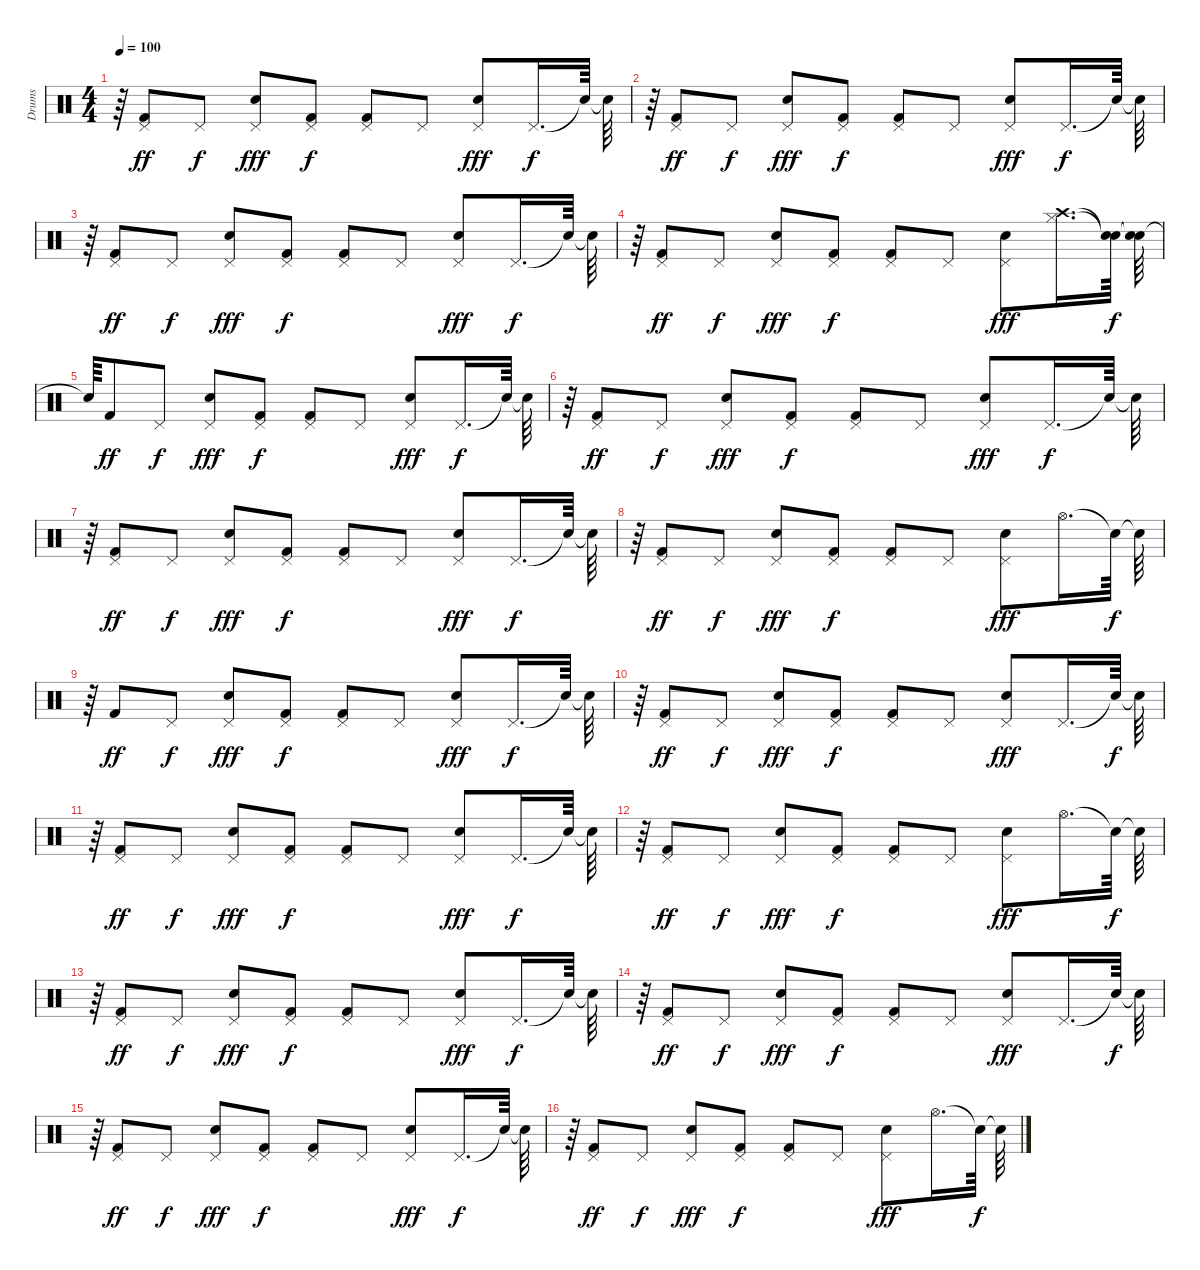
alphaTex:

\track ("Drums" "Drums") {instrument percussion}
\staff {score}
\articulation defaults
\ts (4 4)
\tempo 100
\clef neutral
\ks c
r.64{dy f} ("Pedal Hi-Hat (hit)" "Kick (hit) 2").8{dy ff} "Pedal Hi-Hat (hit)".8{dy f} ("Snare (hit) 2" "Pedal Hi-Hat (hit)").8{dy fff} ("Kick (hit) 2" "Pedal Hi-Hat (hit)").8{dy f} ("Kick (hit) 2" "Pedal Hi-Hat (hit)").8 "Pedal Hi-Hat (hit)".8 ("Snare (hit) 2" "Pedal Hi-Hat (hit)").8{dy fff} "Pedal Hi-Hat (hit)".16{d dy f} "Snare (hit)"{t}.64 "Snare (hit)"{t}.64 |
r.64 ("Pedal Hi-Hat (hit)" "Kick (hit) 2").8{dy ff} "Pedal Hi-Hat (hit)".8{dy f} ("Snare (hit) 2" "Pedal Hi-Hat (hit)").8{dy fff} ("Kick (hit) 2" "Pedal Hi-Hat (hit)").8{dy f} ("Kick (hit) 2" "Pedal Hi-Hat (hit)").8 "Pedal Hi-Hat (hit)".8 ("Snare (hit) 2" "Pedal Hi-Hat (hit)").8{dy fff} "Pedal Hi-Hat (hit)".16{d dy f} "Snare (hit)"{t}.64 "Snare (hit)"{t}.64 |
r.64 ("Pedal Hi-Hat (hit)" "Kick (hit) 2").8{dy ff} "Pedal Hi-Hat (hit)".8{dy f} ("Snare (hit) 2" "Pedal Hi-Hat (hit)").8{dy fff} ("Kick (hit) 2" "Pedal Hi-Hat (hit)").8{dy f} ("Kick (hit) 2" "Pedal Hi-Hat (hit)").8 "Pedal Hi-Hat (hit)".8 ("Snare (hit) 2" "Pedal Hi-Hat (hit)").8{dy fff} "Pedal Hi-Hat (hit)".16{d dy f} "Snare (hit)"{t}.64 "Snare (hit)"{t}.64 |
r.64 ("Pedal Hi-Hat (hit)" "Kick (hit) 2").8{dy ff} "Pedal Hi-Hat (hit)".8{dy f} ("Pedal Hi-Hat (hit)" "Snare (hit) 2").8{dy fff} ("Kick (hit) 2" "Pedal Hi-Hat (hit)").8{dy f} ("Pedal Hi-Hat (hit)" "Kick (hit) 2").8 "Pedal Hi-Hat (hit)".8 ("Pedal Hi-Hat (hit)" "Snare (hit) 2").8{dy fff} ("Crash high (hit)" "Hi-Hat (closed)").16{d} ("Snare (hit)"{t} "Snare (hit)"{t}).64{dy f} ("Snare (hit)"{t} "Snare (hit)"{t}).64 |
"Snare (hit)"{t}.64 "Kick (hit) 2".8{dy ff} "Pedal Hi-Hat (hit)".8{dy f} ("Snare (hit) 2" "Pedal Hi-Hat (hit)").8{dy fff} ("Kick (hit) 2" "Pedal Hi-Hat (hit)").8{dy f} ("Kick (hit) 2" "Pedal Hi-Hat (hit)").8 "Pedal Hi-Hat (hit)".8 ("Snare (hit) 2" "Pedal Hi-Hat (hit)").8{dy fff} "Pedal Hi-Hat (hit)".16{d dy f} "Snare (hit)"{t}.64 "Snare (hit)"{t}.64 |
r.64 ("Pedal Hi-Hat (hit)" "Kick (hit) 2").8{dy ff} "Pedal Hi-Hat (hit)".8{dy f} ("Pedal Hi-Hat (hit)" "Snare (hit) 2").8{dy fff} ("Kick (hit) 2" "Pedal Hi-Hat (hit)").8{dy f} ("Pedal Hi-Hat (hit)" "Kick (hit) 2").8 "Pedal Hi-Hat (hit)".8 ("Pedal Hi-Hat (hit)" "Snare (hit) 2").8{dy fff} "Pedal Hi-Hat (hit)".16{d dy f} "Snare (hit)"{t}.64 "Snare (hit)"{t}.64 |
r.64 ("Pedal Hi-Hat (hit)" "Kick (hit) 2").8{dy ff} "Pedal Hi-Hat (hit)".8{dy f} ("Snare (hit) 2" "Pedal Hi-Hat (hit)").8{dy fff} ("Kick (hit) 2" "Pedal Hi-Hat (hit)").8{dy f} ("Kick (hit) 2" "Pedal Hi-Hat (hit)").8 "Pedal Hi-Hat (hit)".8 ("Snare (hit) 2" "Pedal Hi-Hat (hit)").8{dy fff} "Pedal Hi-Hat (hit)".16{d dy f} "Snare (hit)"{t}.64 "Snare (hit)"{t}.64 |
r.64 ("Pedal Hi-Hat (hit)" "Kick (hit) 2").8{dy ff} "Pedal Hi-Hat (hit)".8{dy f} ("Pedal Hi-Hat (hit)" "Snare (hit) 2").8{dy fff} ("Kick (hit) 2" "Pedal Hi-Hat (hit)").8{dy f} ("Pedal Hi-Hat (hit)" "Kick (hit) 2").8 "Pedal Hi-Hat (hit)".8 ("Pedal Hi-Hat (hit)" "Snare (hit) 2").8{dy fff} "Hi-Hat (open)".16{d} "Snare (hit)"{t}.64{dy f} "Snare (hit)"{t}.64 |
r.64 "Kick (hit) 2".8{dy ff} "Pedal Hi-Hat (hit)".8{dy f} ("Snare (hit) 2" "Pedal Hi-Hat (hit)").8{dy fff} ("Kick (hit) 2" "Pedal Hi-Hat (hit)").8{dy f} ("Kick (hit) 2" "Pedal Hi-Hat (hit)").8 "Pedal Hi-Hat (hit)".8 ("Snare (hit) 2" "Pedal Hi-Hat (hit)").8{dy fff} "Pedal Hi-Hat (hit)".16{d dy f} "Snare (hit)"{t}.64 "Snare (hit)"{t}.64 |
r.64 ("Pedal Hi-Hat (hit)" "Kick (hit) 2").8{dy ff} "Pedal Hi-Hat (hit)".8{dy f} ("Pedal Hi-Hat (hit)" "Snare (hit) 2").8{dy fff} ("Kick (hit) 2" "Pedal Hi-Hat (hit)").8{dy f} ("Pedal Hi-Hat (hit)" "Kick (hit) 2").8 "Pedal Hi-Hat (hit)".8 ("Pedal Hi-Hat (hit)" "Snare (hit) 2").8{dy fff} "Pedal Hi-Hat (hit)".16{d} "Snare (hit)"{t}.64{dy f} "Snare (hit)"{t}.64 |
r.64 ("Pedal Hi-Hat (hit)" "Kick (hit) 2").8{dy ff} "Pedal Hi-Hat (hit)".8{dy f} ("Snare (hit) 2" "Pedal Hi-Hat (hit)").8{dy fff} ("Kick (hit) 2" "Pedal Hi-Hat (hit)").8{dy f} ("Kick (hit) 2" "Pedal Hi-Hat (hit)").8 "Pedal Hi-Hat (hit)".8 ("Snare (hit) 2" "Pedal Hi-Hat (hit)").8{dy fff} "Pedal Hi-Hat (hit)".16{d dy f} "Snare (hit)"{t}.64 "Snare (hit)"{t}.64 |
r.64 ("Pedal Hi-Hat (hit)" "Kick (hit) 2").8{dy ff} "Pedal Hi-Hat (hit)".8{dy f} ("Pedal Hi-Hat (hit)" "Snare (hit) 2").8{dy fff} ("Kick (hit) 2" "Pedal Hi-Hat (hit)").8{dy f} ("Pedal Hi-Hat (hit)" "Kick (hit) 2").8 "Pedal Hi-Hat (hit)".8 ("Pedal Hi-Hat (hit)" "Snare (hit) 2").8{dy fff} "Hi-Hat (open)".16{d} "Snare (hit)"{t}.64{dy f} "Snare (hit)"{t}.64 |
r.64 ("Pedal Hi-Hat (hit)" "Kick (hit) 2").8{dy ff} "Pedal Hi-Hat (hit)".8{dy f} ("Snare (hit) 2" "Pedal Hi-Hat (hit)").8{dy fff} ("Kick (hit) 2" "Pedal Hi-Hat (hit)").8{dy f} ("Kick (hit) 2" "Pedal Hi-Hat (hit)").8 "Pedal Hi-Hat (hit)".8 ("Snare (hit) 2" "Pedal Hi-Hat (hit)").8{dy fff} "Pedal Hi-Hat (hit)".16{d dy f} "Snare (hit)"{t}.64 "Snare (hit)"{t}.64 |
r.64 ("Pedal Hi-Hat (hit)" "Kick (hit) 2").8{dy ff} "Pedal Hi-Hat (hit)".8{dy f} ("Pedal Hi-Hat (hit)" "Snare (hit) 2").8{dy fff} ("Kick (hit) 2" "Pedal Hi-Hat (hit)").8{dy f} ("Pedal Hi-Hat (hit)" "Kick (hit) 2").8 "Pedal Hi-Hat (hit)".8 ("Pedal Hi-Hat (hit)" "Snare (hit) 2").8{dy fff} "Pedal Hi-Hat (hit)".16{d} "Snare (hit)"{t}.64{dy f} "Snare (hit)"{t}.64 |
r.64 ("Pedal Hi-Hat (hit)" "Kick (hit) 2").8{dy ff} "Pedal Hi-Hat (hit)".8{dy f} ("Snare (hit) 2" "Pedal Hi-Hat (hit)").8{dy fff} ("Kick (hit) 2" "Pedal Hi-Hat (hit)").8{dy f} ("Kick (hit) 2" "Pedal Hi-Hat (hit)").8 "Pedal Hi-Hat (hit)".8 ("Snare (hit) 2" "Pedal Hi-Hat (hit)").8{dy fff} "Pedal Hi-Hat (hit)".16{d dy f} "Snare (hit)"{t}.64 "Snare (hit)"{t}.64 |
r.64 ("Pedal Hi-Hat (hit)" "Kick (hit) 2").8{dy ff} "Pedal Hi-Hat (hit)".8{dy f} ("Pedal Hi-Hat (hit)" "Snare (hit) 2").8{dy fff} ("Kick (hit) 2" "Pedal Hi-Hat (hit)").8{dy f} ("Pedal Hi-Hat (hit)" "Kick (hit) 2").8 "Pedal Hi-Hat (hit)".8 ("Pedal Hi-Hat (hit)" "Snare (hit) 2").8{dy fff} "Hi-Hat (open)".16{d} "Snare (hit)"{t}.64{dy f} "Snare (hit)"{t}.64
